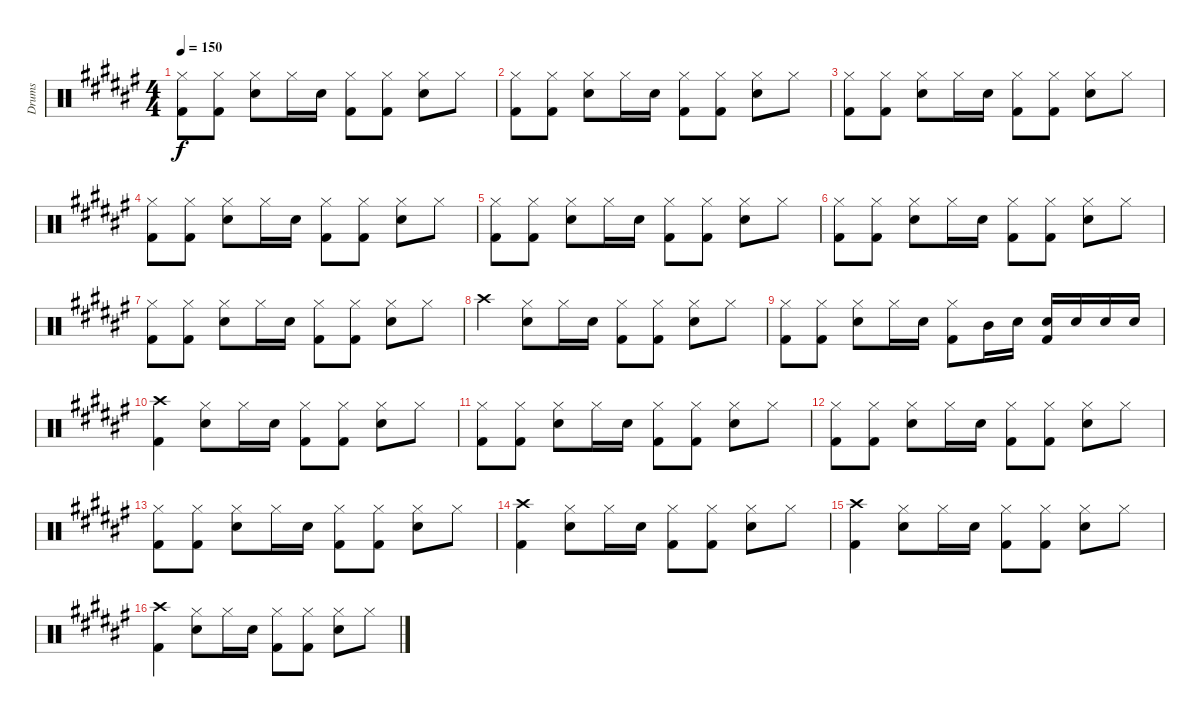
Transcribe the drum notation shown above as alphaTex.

\track ("Drums" "Drums") {instrument percussion}
\staff {score}
\articulation defaults
\ts (4 4)
\tempo 150
\clef neutral
\ks f#
("Hi-Hat (closed)" "Kick (hit) 2").8{dy f} ("Hi-Hat (closed)" "Kick (hit) 2").8 ("Hi-Hat (closed)" "Snare (hit) 2").8 "Hi-Hat (closed)".16 "Snare (hit) 2".16 ("Hi-Hat (closed)" "Kick (hit) 2").8 ("Hi-Hat (closed)" "Kick (hit) 2").8 ("Hi-Hat (closed)" "Snare (hit) 2").8 "Hi-Hat (closed)".8 |
("Hi-Hat (closed)" "Kick (hit) 2").8 ("Hi-Hat (closed)" "Kick (hit) 2").8 ("Hi-Hat (closed)" "Snare (hit) 2").8 "Hi-Hat (closed)".16 "Snare (hit) 2".16 ("Hi-Hat (closed)" "Kick (hit) 2").8 ("Hi-Hat (closed)" "Kick (hit) 2").8 ("Hi-Hat (closed)" "Snare (hit) 2").8 "Hi-Hat (closed)".8 |
("Hi-Hat (closed)" "Kick (hit) 2").8 ("Hi-Hat (closed)" "Kick (hit) 2").8 ("Hi-Hat (closed)" "Snare (hit) 2").8 "Hi-Hat (closed)".16 "Snare (hit) 2".16 ("Hi-Hat (closed)" "Kick (hit) 2").8 ("Hi-Hat (closed)" "Kick (hit) 2").8 ("Hi-Hat (closed)" "Snare (hit) 2").8 "Hi-Hat (closed)".8 |
("Hi-Hat (closed)" "Kick (hit) 2").8 ("Hi-Hat (closed)" "Kick (hit) 2").8 ("Hi-Hat (closed)" "Snare (hit) 2").8 "Hi-Hat (closed)".16 "Snare (hit) 2".16 ("Hi-Hat (closed)" "Kick (hit) 2").8 ("Hi-Hat (closed)" "Kick (hit) 2").8 ("Hi-Hat (closed)" "Snare (hit) 2").8 "Hi-Hat (closed)".8 |
("Hi-Hat (closed)" "Kick (hit) 2").8 ("Hi-Hat (closed)" "Kick (hit) 2").8 ("Hi-Hat (closed)" "Snare (hit) 2").8 "Hi-Hat (closed)".16 "Snare (hit) 2".16 ("Hi-Hat (closed)" "Kick (hit) 2").8 ("Hi-Hat (closed)" "Kick (hit) 2").8 ("Hi-Hat (closed)" "Snare (hit) 2").8 "Hi-Hat (closed)".8 |
("Hi-Hat (closed)" "Kick (hit) 2").8 ("Hi-Hat (closed)" "Kick (hit) 2").8 ("Hi-Hat (closed)" "Snare (hit) 2").8 "Hi-Hat (closed)".16 "Snare (hit) 2".16 ("Hi-Hat (closed)" "Kick (hit) 2").8 ("Hi-Hat (closed)" "Kick (hit) 2").8 ("Hi-Hat (closed)" "Snare (hit) 2").8 "Hi-Hat (closed)".8 |
("Hi-Hat (closed)" "Kick (hit) 2").8 ("Hi-Hat (closed)" "Kick (hit) 2").8 ("Hi-Hat (closed)" "Snare (hit) 2").8 "Hi-Hat (closed)".16 "Snare (hit) 2".16 ("Hi-Hat (closed)" "Kick (hit) 2").8 ("Hi-Hat (closed)" "Kick (hit) 2").8 ("Hi-Hat (closed)" "Snare (hit) 2").8 "Hi-Hat (closed)".8 |
"Crash high (hit)".4 ("Hi-Hat (closed)" "Snare (hit) 2").8 "Hi-Hat (closed)".16 "Snare (hit) 2".16 ("Hi-Hat (closed)" "Kick (hit) 2").8 ("Hi-Hat (closed)" "Kick (hit) 2").8 ("Hi-Hat (closed)" "Snare (hit) 2").8 "Hi-Hat (closed)".8 |
("Hi-Hat (closed)" "Kick (hit) 2").8 ("Hi-Hat (closed)" "Kick (hit) 2").8 ("Hi-Hat (closed)" "Snare (hit) 2").8 "Hi-Hat (closed)".16 "Snare (hit) 2".16 ("Hi-Hat (closed)" "Kick (hit) 2").8 "Mid Tom (hit)".16 "Snare (hit) 2".16 ("Snare (hit) 2" "Kick (hit) 2").16 "Snare (hit) 2".16 "Snare (hit) 2".16 "Snare (hit) 2".16 |
("Crash high (hit)" "Kick (hit) 2").4 ("Hi-Hat (closed)" "Snare (hit) 2").8 "Hi-Hat (closed)".16 "Snare (hit) 2".16 ("Hi-Hat (closed)" "Kick (hit) 2").8 ("Hi-Hat (closed)" "Kick (hit) 2").8 ("Hi-Hat (closed)" "Snare (hit) 2").8 "Hi-Hat (closed)".8 |
("Hi-Hat (closed)" "Kick (hit) 2").8 ("Hi-Hat (closed)" "Kick (hit) 2").8 ("Hi-Hat (closed)" "Snare (hit) 2").8 "Hi-Hat (closed)".16 "Snare (hit) 2".16 ("Hi-Hat (closed)" "Kick (hit) 2").8 ("Hi-Hat (closed)" "Kick (hit) 2").8 ("Hi-Hat (closed)" "Snare (hit) 2").8 "Hi-Hat (closed)".8 |
("Hi-Hat (closed)" "Kick (hit) 2").8 ("Hi-Hat (closed)" "Kick (hit) 2").8 ("Hi-Hat (closed)" "Snare (hit) 2").8 "Hi-Hat (closed)".16 "Snare (hit) 2".16 ("Hi-Hat (closed)" "Kick (hit) 2").8 ("Hi-Hat (closed)" "Kick (hit) 2").8 ("Hi-Hat (closed)" "Snare (hit) 2").8 "Hi-Hat (closed)".8 |
("Hi-Hat (closed)" "Kick (hit) 2").8 ("Hi-Hat (closed)" "Kick (hit) 2").8 ("Hi-Hat (closed)" "Snare (hit) 2").8 "Hi-Hat (closed)".16 "Snare (hit) 2".16 ("Hi-Hat (closed)" "Kick (hit) 2").8 ("Hi-Hat (closed)" "Kick (hit) 2").8 ("Hi-Hat (closed)" "Snare (hit) 2").8 "Hi-Hat (closed)".8 |
("Crash high (hit)" "Kick (hit) 2").4 ("Hi-Hat (closed)" "Snare (hit) 2").8 "Hi-Hat (closed)".16 "Snare (hit) 2".16 ("Hi-Hat (closed)" "Kick (hit) 2").8 ("Hi-Hat (closed)" "Kick (hit) 2").8 ("Hi-Hat (closed)" "Snare (hit) 2").8 "Hi-Hat (closed)".8 |
("Crash high (hit)" "Kick (hit) 2").4 ("Hi-Hat (closed)" "Snare (hit) 2").8 "Hi-Hat (closed)".16 "Snare (hit) 2".16 ("Hi-Hat (closed)" "Kick (hit) 2").8 ("Hi-Hat (closed)" "Kick (hit) 2").8 ("Hi-Hat (closed)" "Snare (hit) 2").8 "Hi-Hat (closed)".8 |
("Crash high (hit)" "Kick (hit) 2").4 ("Hi-Hat (closed)" "Snare (hit) 2").8 "Hi-Hat (closed)".16 "Snare (hit) 2".16 ("Hi-Hat (closed)" "Kick (hit) 2").8 ("Hi-Hat (closed)" "Kick (hit) 2").8 ("Hi-Hat (closed)" "Snare (hit) 2").8 "Hi-Hat (closed)".8
